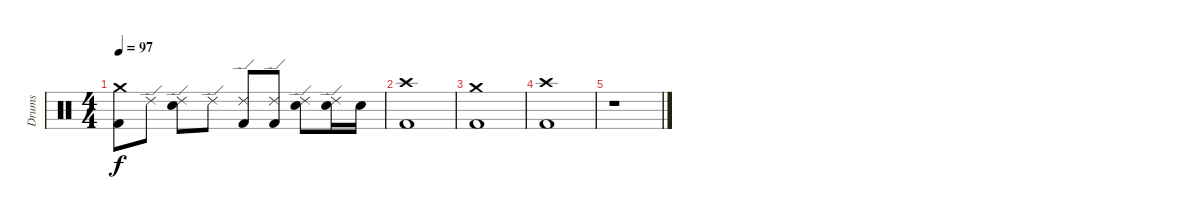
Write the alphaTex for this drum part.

\track ("Drums" "Drums") {instrument percussion}
\staff {score}
\articulation defaults
\ts (4 4)
\tempo 97
\clef neutral
\ks c
("Crash medium (hit)" "Kick (hit) 2").8{dy f} "Ride (edge) 2".8 ("Ride (edge) 2" "Snare (hit) 2").8 "Ride (edge) 2".8 ("Ride (edge) 2" "Kick (hit) 2").8 ("Ride (edge) 2" "Kick (hit) 2").8 ("Ride (edge) 2" "Snare (hit) 2").8 ("Ride (edge) 2" "Snare (hit) 2").16 "Snare (hit) 2".16 |
("Crash high (hit)" "Kick (hit) 2").1 |
("Crash medium (hit)" "Kick (hit) 2").1 |
("Crash high (hit)" "Kick (hit) 2").1 |
r.1
